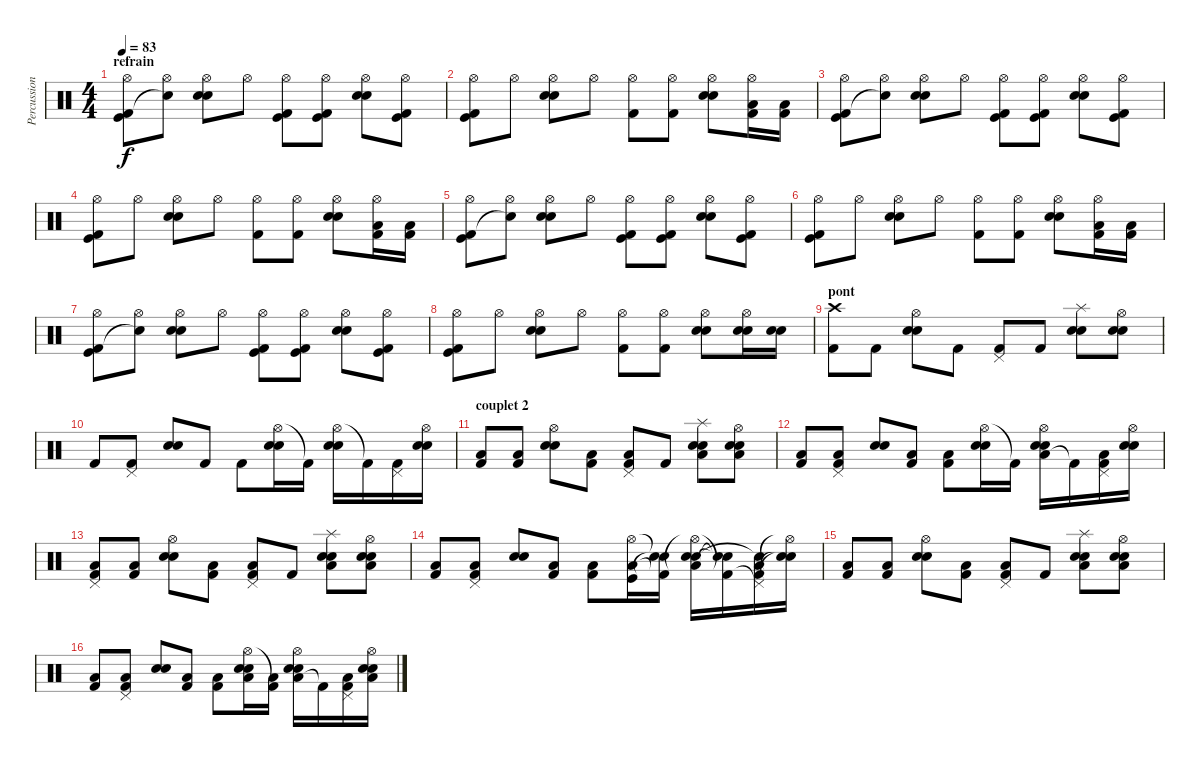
\track ("Percussions" "Percussion") {instrument percussion}
\staff {score}
\articulation defaults
\ts (4 4)
\section ("" "refrain")
\tempo 83
\clef neutral
\ks c
("Hi-Hat (open)" "Kick (hit) 2" "Kick (hit)").8{dy f} ("Hi-Hat (open)" "Electric Snare (hit)"{t}).8 ("Hi-Hat (open)" "Electric Snare (hit)" "Snare (hit) 2").8 "Hi-Hat (open)".8 ("Hi-Hat (open)" "Kick (hit) 2" "Kick (hit)").8 ("Hi-Hat (open)" "Kick (hit) 2" "Kick (hit)").8 ("Hi-Hat (open)" "Electric Snare (hit)" "Snare (hit) 2").8 ("Hi-Hat (open)" "Kick (hit) 2" "Kick (hit)").8 |
("Hi-Hat (open)" "Kick (hit) 2" "Kick (hit)").8 "Hi-Hat (open)".8 ("Hi-Hat (open)" "Electric Snare (hit)" "Snare (hit) 2").8 "Hi-Hat (open)".8 ("Hi-Hat (open)" "Kick (hit) 2").8 ("Hi-Hat (open)" "Kick (hit) 2").8 ("Hi-Hat (open)" "Electric Snare (hit)" "Snare (hit) 2").8 ("Hi-Hat (open)" "Low Tom (hit)" "Kick (hit) 2").16 ("Low Floor Tom (hit)" "Kick (hit) 2").16 |
("Hi-Hat (open)" "Kick (hit) 2" "Kick (hit)").8 ("Hi-Hat (open)" "Electric Snare (hit)"{t}).8 ("Hi-Hat (open)" "Electric Snare (hit)" "Snare (hit) 2").8 "Hi-Hat (open)".8 ("Hi-Hat (open)" "Kick (hit) 2" "Kick (hit)").8 ("Hi-Hat (open)" "Kick (hit) 2" "Kick (hit)").8 ("Hi-Hat (open)" "Electric Snare (hit)" "Snare (hit) 2").8 ("Hi-Hat (open)" "Kick (hit) 2" "Kick (hit)").8 |
("Hi-Hat (open)" "Kick (hit) 2" "Kick (hit)").8 "Hi-Hat (open)".8 ("Hi-Hat (open)" "Electric Snare (hit)" "Snare (hit) 2").8 "Hi-Hat (open)".8 ("Hi-Hat (open)" "Kick (hit) 2").8 ("Hi-Hat (open)" "Kick (hit) 2").8 ("Hi-Hat (open)" "Electric Snare (hit)" "Snare (hit) 2").8 ("Hi-Hat (open)" "Low Tom (hit)" "Kick (hit) 2").16 ("Low Floor Tom (hit)" "Kick (hit) 2").16 |
("Hi-Hat (open)" "Kick (hit) 2" "Kick (hit)").8 ("Hi-Hat (open)" "Electric Snare (hit)"{t}).8 ("Hi-Hat (open)" "Electric Snare (hit)" "Snare (hit) 2").8 "Hi-Hat (open)".8 ("Hi-Hat (open)" "Kick (hit) 2" "Kick (hit)").8 ("Hi-Hat (open)" "Kick (hit) 2" "Kick (hit)").8 ("Hi-Hat (open)" "Electric Snare (hit)" "Snare (hit) 2").8 ("Hi-Hat (open)" "Kick (hit) 2" "Kick (hit)").8 |
("Hi-Hat (open)" "Kick (hit) 2" "Kick (hit)").8 "Hi-Hat (open)".8 ("Hi-Hat (open)" "Electric Snare (hit)" "Snare (hit) 2").8 "Hi-Hat (open)".8 ("Hi-Hat (open)" "Kick (hit) 2").8 ("Hi-Hat (open)" "Kick (hit) 2").8 ("Hi-Hat (open)" "Electric Snare (hit)" "Snare (hit) 2").8 ("Hi-Hat (open)" "Low Tom (hit)" "Kick (hit) 2").16 ("Low Floor Tom (hit)" "Kick (hit) 2").16 |
("Hi-Hat (open)" "Kick (hit) 2" "Kick (hit)").8 ("Hi-Hat (open)" "Electric Snare (hit)"{t}).8 ("Hi-Hat (open)" "Electric Snare (hit)" "Snare (hit) 2").8 "Hi-Hat (open)".8 ("Hi-Hat (open)" "Kick (hit) 2" "Kick (hit)").8 ("Hi-Hat (open)" "Kick (hit) 2" "Kick (hit)").8 ("Hi-Hat (open)" "Electric Snare (hit)" "Snare (hit) 2").8 ("Hi-Hat (open)" "Kick (hit) 2" "Kick (hit)").8 |
("Hi-Hat (open)" "Kick (hit) 2" "Kick (hit)").8 "Hi-Hat (open)".8 ("Hi-Hat (open)" "Electric Snare (hit)" "Snare (hit) 2").8 "Hi-Hat (open)".8 ("Hi-Hat (open)" "Kick (hit) 2").8 ("Hi-Hat (open)" "Kick (hit) 2").8 ("Hi-Hat (open)" "Electric Snare (hit)" "Snare (hit) 2").8 ("Hi-Hat (open)" "Electric Snare (hit)" "Snare (hit) 2").16 ("Electric Snare (hit)" "Snare (hit) 2").16 |
\section ("" "pont")
("Crash high (hit)" "Kick (hit) 2").8 "Kick (hit) 2".8 ("Hi-Hat (open)" "Electric Snare (hit)" "Snare (hit) 2").8 "Kick (hit) 2".8 ("Pedal Hi-Hat (hit)" "Kick (hit) 2").8 "Kick (hit) 2".8 ("Splash (hit)" "Electric Snare (hit)" "Snare (hit) 2").8 ("Hi-Hat (open)" "Electric Snare (hit)" "Snare (hit) 2").8 |
"Kick (hit) 2".8 ("Pedal Hi-Hat (hit)" "Kick (hit) 2").8 ("Electric Snare (hit)" "Snare (hit) 2").8 "Kick (hit) 2".8 "Kick (hit) 2".8 ("Hi-Hat (open)" "Electric Snare (hit)" "Snare (hit) 2").16 "Kick (hit) 2"{t}.16 ("Hi-Hat (open)" "Electric Snare (hit)" "Snare (hit) 2").16 "Kick (hit) 2"{t}.16 ("Pedal Hi-Hat (hit)" "Kick (hit) 2").16 ("Hi-Hat (open)" "Electric Snare (hit)" "Snare (hit) 2").16 |
\section ("" "couplet 2")
("Low Tom (hit)" "Kick (hit) 2").8 ("Low Floor Tom (hit)" "Kick (hit) 2").8 ("Hi-Hat (open)" "Electric Snare (hit)" "Snare (hit) 2").8 ("Low Tom (hit)" "Kick (hit) 2").8 ("Low Floor Tom (hit)" "Pedal Hi-Hat (hit)" "Kick (hit) 2").8 "Kick (hit) 2".8 ("Low Tom (hit)" "Splash (hit)" "Electric Snare (hit)" "Snare (hit) 2").8 ("Low Floor Tom (hit)" "Hi-Hat (open)" "Electric Snare (hit)" "Snare (hit) 2").8 |
("Low Tom (hit)" "Kick (hit) 2").8 ("Low Floor Tom (hit)" "Pedal Hi-Hat (hit)" "Kick (hit) 2").8 ("Electric Snare (hit)" "Snare (hit) 2").8 ("Low Tom (hit)" "Kick (hit) 2").8 ("Low Floor Tom (hit)" "Kick (hit) 2").8 ("Hi-Hat (open)" "Electric Snare (hit)" "Snare (hit) 2").16 "Kick (hit) 2"{t}.16 ("Low Tom (hit)" "Hi-Hat (open)" "Electric Snare (hit)" "Snare (hit) 2").16 "Kick (hit) 2"{t}.16 ("Low Tom (hit)" "Pedal Hi-Hat (hit)" "Kick (hit) 2").16 ("Hi-Hat (open)" "Electric Snare (hit)" "Snare (hit) 2").16 |
("Low Tom (hit)" "Pedal Hi-Hat (hit)" "Kick (hit) 2").8 ("Low Floor Tom (hit)" "Kick (hit) 2").8 ("Hi-Hat (open)" "Electric Snare (hit)" "Snare (hit) 2").8 ("Low Tom (hit)" "Kick (hit) 2").8 ("Low Floor Tom (hit)" "Pedal Hi-Hat (hit)" "Kick (hit) 2").8 "Kick (hit) 2".8 ("Low Tom (hit)" "Splash (hit)" "Electric Snare (hit)" "Snare (hit) 2").8 ("Low Floor Tom (hit)" "Hi-Hat (open)" "Electric Snare (hit)" "Snare (hit) 2").8 |
("Low Tom (hit)" "Kick (hit) 2").8 ("Low Floor Tom (hit)" "Pedal Hi-Hat (hit)" "Kick (hit) 2").8 ("Electric Snare (hit)" "Snare (hit) 2").8 ("Low Tom (hit)" "Kick (hit) 2").8 ("Low Floor Tom (hit)" "Kick (hit) 2").8 ("Hi-Hat (open)" "Low Floor Tom (hit)" "Kick (hit)").16 ("Snare (hit)"{t} "Kick (hit) 2"{t} "Snare (hit)"{t}).16 ("Low Tom (hit)" "Hi-Hat (open)"{t} "Electric Snare (hit)" "Snare (hit) 2").16 ("Snare (hit)"{t} "Kick (hit) 2"{t} "Snare (hit)"{t}).16 ("Low Tom (hit)" "Pedal Hi-Hat (hit)"{t} "Kick (hit) 2" "Snare (hit)"{t}).16 ("Hi-Hat (open)"{t} "Electric Snare (hit)"{t} "Snare (hit) 2"{t}).16 |
("Low Tom (hit)" "Kick (hit) 2").8 ("Low Floor Tom (hit)" "Kick (hit) 2").8 ("Hi-Hat (open)" "Electric Snare (hit)" "Snare (hit) 2").8 ("Low Tom (hit)" "Kick (hit) 2").8 ("Low Floor Tom (hit)" "Pedal Hi-Hat (hit)" "Kick (hit) 2").8 "Kick (hit) 2".8 ("Low Tom (hit)" "Splash (hit)" "Electric Snare (hit)" "Snare (hit) 2").8 ("Low Floor Tom (hit)" "Hi-Hat (open)" "Electric Snare (hit)" "Snare (hit) 2").8 |
("Low Tom (hit)" "Kick (hit) 2").8 ("Low Floor Tom (hit)" "Pedal Hi-Hat (hit)" "Kick (hit) 2").8 ("Electric Snare (hit)" "Snare (hit) 2").8 ("Low Tom (hit)" "Kick (hit) 2").8 ("Low Tom (hit)" "Kick (hit) 2").8 ("Low Floor Tom (hit)" "Hi-Hat (open)" "Electric Snare (hit)" "Snare (hit) 2").16 ("Low Tom (hit)" "Kick (hit) 2"{t}).16 ("Low Floor Tom (hit)" "Hi-Hat (open)" "Electric Snare (hit)" "Snare (hit) 2").16 "Kick (hit) 2"{t}.16 ("Low Floor Tom (hit)" "Pedal Hi-Hat (hit)" "Kick (hit) 2").16 ("Low Tom (hit)" "Hi-Hat (open)" "Electric Snare (hit)" "Snare (hit) 2").16
